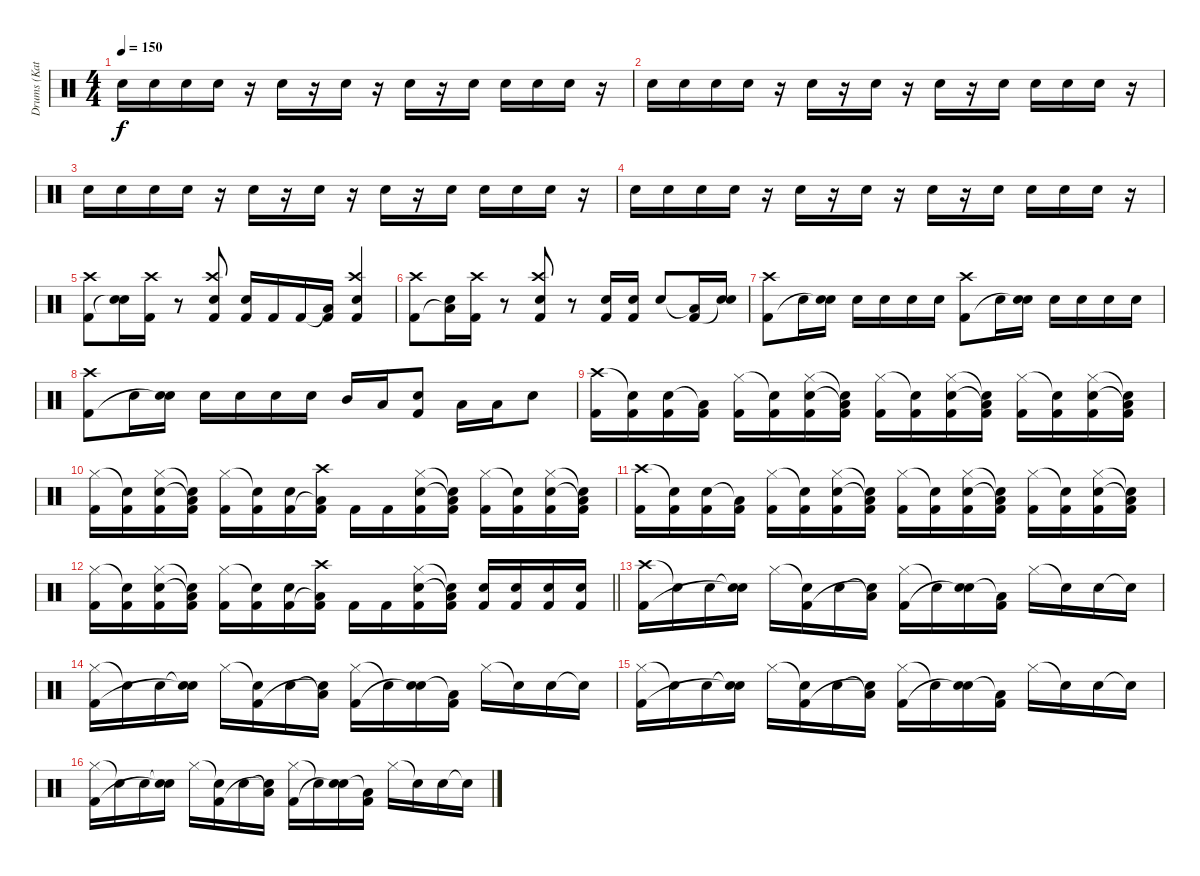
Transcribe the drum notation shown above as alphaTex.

\track ("Drums (Katsuji)" "Drums (Kat") {instrument percussion}
\staff {score}
\articulation defaults
\ts (4 4)
\tempo 150
\clef neutral
\ks c "Snare (hit) 2".16{dy f} "Snare (hit) 2".16 "Snare (hit) 2".16 "Snare (hit) 2".16
r.16 "Snare (hit) 2".16 r.16 "Snare (hit) 2".16 r.16 "Snare (hit) 2".16 r.16 "Snare (hit) 2".16 "Snare (hit) 2".16 "Snare (hit) 2".16 "Snare (hit) 2".16 r.16 |
"Snare (hit) 2".16 "Snare (hit) 2".16 "Snare (hit) 2".16 "Snare (hit) 2".16 r.16 "Snare (hit) 2".16 r.16 "Snare (hit) 2".16 r.16 "Snare (hit) 2".16 r.16 "Snare (hit) 2".16 "Snare (hit) 2".16 "Snare (hit) 2".16 "Snare (hit) 2".16 r.16 |
"Snare (hit) 2".16 "Snare (hit) 2".16 "Snare (hit) 2".16 "Snare (hit) 2".16 r.16 "Snare (hit) 2".16 r.16 "Snare (hit) 2".16 r.16 "Snare (hit) 2".16 r.16 "Snare (hit) 2".16 "Snare (hit) 2".16 "Snare (hit) 2".16 "Snare (hit) 2".16 r.16 |
"Snare (hit) 2".16 "Snare (hit) 2".16 "Snare (hit) 2".16 "Snare (hit) 2".16 r.16 "Snare (hit) 2".16 r.16 "Snare (hit) 2".16 r.16 "Snare (hit) 2".16 r.16 "Snare (hit) 2".16 "Snare (hit) 2".16 "Snare (hit) 2".16 "Snare (hit) 2".16 r.16 |
("Crash high (hit)" "Kick (hit) 2").8 ("Snare (hit) 2" "Snare (hit)"{t}).16 ("Crash high (hit)" "Kick (hit) 2").16 r.8 ("Crash high (hit)" "Snare (hit) 2" "Kick (hit) 2").8 ("Snare (hit) 2" "Kick (hit) 2").16 "Kick (hit) 2".16 "Kick (hit) 2".16 ("Low Floor Tom (hit)"{t} "Kick (hit) 2").16 ("Crash high (hit)" "Snare (hit) 2" "Kick (hit) 2").4 |
("Crash high (hit)" "Kick (hit) 2").8 ("Snare (hit) 2" "Low Floor Tom (hit)"{t}).16 ("Crash high (hit)" "Kick (hit) 2").16 r.8 ("Crash high (hit)" "Snare (hit) 2" "Kick (hit) 2").8 r.8 ("Snare (hit) 2" "Kick (hit) 2").16 ("Snare (hit) 2" "Kick (hit) 2").16 "Snare (hit) 2".8 ("Low Floor Tom (hit)"{t} "Kick (hit) 2").16 ("Snare (hit) 2" "Snare (hit)"{t}).16 |
("Crash high (hit)" "Kick (hit) 2").8 "Snare (hit) 2".16 ("Snare (hit) 2" "Snare (hit)"{t}).16 "Snare (hit) 2".16 "Snare (hit) 2".16 "Snare (hit) 2".16 "Snare (hit) 2".16 ("Crash high (hit)" "Kick (hit) 2").8 "Snare (hit) 2".16 ("Snare (hit) 2" "Snare (hit)"{t}).16 "Snare (hit) 2".16 "Snare (hit) 2".16 "Snare (hit) 2".16 "Snare (hit) 2".16 |
("Crash high (hit)" "Kick (hit) 2").8 "Snare (hit) 2".16 ("Snare (hit) 2" "Snare (hit)"{t}).16 "Snare (hit) 2".16 "Snare (hit) 2".16 "Snare (hit) 2".16 "Snare (hit) 2".16 "Mid Tom (hit)".16 "Low Tom (hit)".16 ("Snare (hit) 2" "Kick (hit) 2").8 "Low Tom (hit)".16 "Low Tom (hit)".16 "Snare (hit) 2".8 |
("Crash high (hit)" "Kick (hit) 2").16 ("Snare (hit)"{t} "Kick (hit) 2").16 ("Snare (hit) 2" "Kick (hit) 2").16 ("Low Floor Tom (hit)"{t} "Kick (hit) 2").16 ("Hi-Hat (closed)" "Kick (hit) 2").16 ("Snare (hit)"{t} "Kick (hit) 2").16 ("Hi-Hat (closed)" "Snare (hit) 2" "Kick (hit) 2").16 ("Snare (hit)"{t} "Low Floor Tom (hit)"{t} "Kick (hit) 2").16 ("Hi-Hat (closed)" "Kick (hit) 2").16 ("Snare (hit)"{t} "Kick (hit) 2").16 ("Hi-Hat (closed)" "Snare (hit) 2" "Kick (hit) 2").16 ("Snare (hit)"{t} "Low Floor Tom (hit)"{t} "Kick (hit) 2").16 ("Hi-Hat (closed)" "Kick (hit) 2").16 ("Snare (hit)"{t} "Kick (hit) 2").16 ("Hi-Hat (closed)" "Snare (hit) 2" "Kick (hit) 2").16 ("Snare (hit)"{t} "Low Floor Tom (hit)"{t} "Kick (hit) 2").16 |
("Hi-Hat (closed)" "Kick (hit) 2").16 ("Snare (hit)"{t} "Kick (hit) 2").16 ("Hi-Hat (closed)" "Snare (hit) 2" "Kick (hit) 2").16 ("Snare (hit)"{t} "Low Floor Tom (hit)"{t} "Kick (hit) 2").16 ("Hi-Hat (closed)" "Kick (hit) 2").16 ("Snare (hit)"{t} "Kick (hit) 2").16 ("Snare (hit) 2" "Kick (hit) 2").16 ("Crash high (hit)" "Low Floor Tom (hit)"{t} "Kick (hit) 2").16 "Kick (hit) 2".16 "Kick (hit) 2".16 ("Hi-Hat (closed)" "Snare (hit) 2" "Kick (hit) 2").16 ("Snare (hit)"{t} "Low Floor Tom (hit)"{t} "Kick (hit) 2").16 ("Hi-Hat (closed)" "Kick (hit) 2").16 ("Snare (hit)"{t} "Kick (hit) 2").16 ("Hi-Hat (closed)" "Snare (hit) 2" "Kick (hit) 2").16 ("Snare (hit)"{t} "Low Floor Tom (hit)"{t} "Kick (hit) 2").16 |
("Crash high (hit)" "Kick (hit) 2").16 ("Snare (hit)"{t} "Kick (hit) 2").16 ("Snare (hit) 2" "Kick (hit) 2").16 ("Low Floor Tom (hit)"{t} "Kick (hit) 2").16 ("Hi-Hat (closed)" "Kick (hit) 2").16 ("Snare (hit)"{t} "Kick (hit) 2").16 ("Hi-Hat (closed)" "Snare (hit) 2" "Kick (hit) 2").16 ("Snare (hit)"{t} "Low Floor Tom (hit)"{t} "Kick (hit) 2").16 ("Hi-Hat (closed)" "Kick (hit) 2").16 ("Snare (hit)"{t} "Kick (hit) 2").16 ("Hi-Hat (closed)" "Snare (hit) 2" "Kick (hit) 2").16 ("Snare (hit)"{t} "Low Floor Tom (hit)"{t} "Kick (hit) 2").16 ("Hi-Hat (closed)" "Kick (hit) 2").16 ("Snare (hit)"{t} "Kick (hit) 2").16 ("Hi-Hat (closed)" "Snare (hit) 2" "Kick (hit) 2").16 ("Snare (hit)"{t} "Low Floor Tom (hit)"{t} "Kick (hit) 2").16 |
\barLineRight lightlight
("Hi-Hat (closed)" "Kick (hit) 2").16 ("Snare (hit)"{t} "Kick (hit) 2").16 ("Hi-Hat (closed)" "Snare (hit) 2" "Kick (hit) 2").16 ("Snare (hit)"{t} "Low Floor Tom (hit)"{t} "Kick (hit) 2").16 ("Hi-Hat (closed)" "Kick (hit) 2").16 ("Snare (hit)"{t} "Kick (hit) 2").16 ("Snare (hit) 2" "Kick (hit) 2").16 ("Crash high (hit)" "Low Floor Tom (hit)"{t} "Kick (hit) 2").16 "Kick (hit) 2".16 "Kick (hit) 2".16 ("Hi-Hat (closed)" "Snare (hit) 2" "Kick (hit) 2").16 ("Snare (hit)"{t} "Low Floor Tom (hit)"{t} "Kick (hit) 2").16 ("Snare (hit) 2" "Kick (hit) 2").16 ("Snare (hit) 2" "Kick (hit) 2").16 ("Snare (hit) 2" "Kick (hit) 2").16 ("Snare (hit) 2" "Kick (hit) 2").16 |
("Crash high (hit)" "Kick (hit) 2").16 "Snare (hit)"{t}.16 "Snare (hit) 2".16 ("Snare (hit)"{t} "Snare (hit)"{t}).16 "Hi-Hat (closed)".16 ("Snare (hit)"{t} "Kick (hit) 2").16 "Snare (hit) 2".16 ("Low Floor Tom (hit)"{t} "Snare (hit)"{t}).16 ("Hi-Hat (closed)" "Kick (hit) 2").16 "Snare (hit)"{t}.16 ("Snare (hit) 2" "Snare (hit)"{t}).16 ("Low Floor Tom (hit)"{t} "Kick (hit) 2").16 "Hi-Hat (closed)".16 "Snare (hit)"{t}.16 "Snare (hit) 2".16 "Snare (hit)"{t}.16 |
("Hi-Hat (closed)" "Kick (hit) 2").16 "Snare (hit)"{t}.16 "Snare (hit) 2".16 ("Snare (hit)"{t} "Snare (hit)"{t}).16 "Hi-Hat (closed)".16 ("Snare (hit)"{t} "Kick (hit) 2").16 "Snare (hit) 2".16 ("Low Floor Tom (hit)"{t} "Snare (hit)"{t}).16 ("Hi-Hat (closed)" "Kick (hit) 2").16 "Snare (hit)"{t}.16 ("Snare (hit) 2" "Snare (hit)"{t}).16 ("Low Floor Tom (hit)"{t} "Kick (hit) 2").16 "Hi-Hat (closed)".16 "Snare (hit)"{t}.16 "Snare (hit) 2".16 "Snare (hit)"{t}.16 |
("Hi-Hat (closed)" "Kick (hit) 2").16 "Snare (hit)"{t}.16 "Snare (hit) 2".16 ("Snare (hit)"{t} "Snare (hit)"{t}).16 "Hi-Hat (closed)".16 ("Snare (hit)"{t} "Kick (hit) 2").16 "Snare (hit) 2".16 ("Low Floor Tom (hit)"{t} "Snare (hit)"{t}).16 ("Hi-Hat (closed)" "Kick (hit) 2").16 "Snare (hit)"{t}.16 ("Snare (hit) 2" "Snare (hit)"{t}).16 ("Low Floor Tom (hit)"{t} "Kick (hit) 2").16 "Hi-Hat (closed)".16 "Snare (hit)"{t}.16 "Snare (hit) 2".16 "Snare (hit)"{t}.16 |
("Hi-Hat (closed)" "Kick (hit) 2").16 "Snare (hit)"{t}.16 "Snare (hit) 2".16 ("Snare (hit)"{t} "Snare (hit)"{t}).16 "Hi-Hat (closed)".16 ("Snare (hit)"{t} "Kick (hit) 2").16 "Snare (hit) 2".16 ("Low Floor Tom (hit)"{t} "Snare (hit)"{t}).16 ("Hi-Hat (closed)" "Kick (hit) 2").16 "Snare (hit)"{t}.16 ("Snare (hit) 2" "Snare (hit)"{t}).16 ("Low Floor Tom (hit)"{t} "Kick (hit) 2").16 "Hi-Hat (closed)".16 "Snare (hit)"{t}.16 "Snare (hit) 2".16 "Snare (hit)"{t}.16
